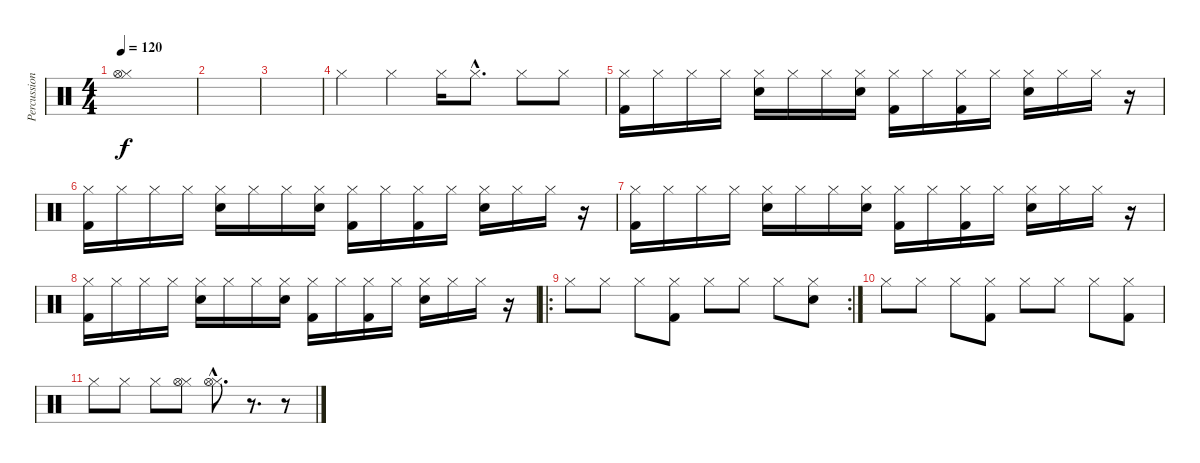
\track ("Percussion" "Percussion") {instrument percussion}
\staff {score}
\articulation defaults
\ts (4 4)
\tempo 120
\clef neutral
\ks c
("Hi-Hat (closed)" "Hi-Hat (open)").1{dy f} |
|
|
"Hi-Hat (closed)".4 "Hi-Hat (closed)".4 "Hi-Hat (closed)".16 "Hi-Hat (closed)"{hac}.8{d} "Hi-Hat (closed)".8 "Hi-Hat (closed)".8 |
("Hi-Hat (closed)" "Kick (hit) 2").16 "Hi-Hat (closed)".16 "Hi-Hat (closed)".16 "Hi-Hat (closed)".16 ("Hi-Hat (closed)" "Snare (hit) 2").16 "Hi-Hat (closed)".16 "Hi-Hat (closed)".16 ("Hi-Hat (closed)" "Snare (hit) 2").16 ("Hi-Hat (closed)" "Kick (hit) 2").16 "Hi-Hat (closed)".16 ("Hi-Hat (closed)" "Kick (hit) 2").16 "Hi-Hat (closed)".16 ("Hi-Hat (closed)" "Snare (hit) 2").16 "Hi-Hat (closed)".16 "Hi-Hat (closed)".16 r.16 |
("Hi-Hat (closed)" "Kick (hit) 2").16 "Hi-Hat (closed)".16 "Hi-Hat (closed)".16 "Hi-Hat (closed)".16 ("Hi-Hat (closed)" "Snare (hit) 2").16 "Hi-Hat (closed)".16 "Hi-Hat (closed)".16 ("Hi-Hat (closed)" "Snare (hit) 2").16 ("Hi-Hat (closed)" "Kick (hit) 2").16 "Hi-Hat (closed)".16 ("Hi-Hat (closed)" "Kick (hit) 2").16 "Hi-Hat (closed)".16 ("Hi-Hat (closed)" "Snare (hit) 2").16 "Hi-Hat (closed)".16 "Hi-Hat (closed)".16 r.16 |
("Hi-Hat (closed)" "Kick (hit) 2").16 "Hi-Hat (closed)".16 "Hi-Hat (closed)".16 "Hi-Hat (closed)".16 ("Hi-Hat (closed)" "Snare (hit) 2").16 "Hi-Hat (closed)".16 "Hi-Hat (closed)".16 ("Hi-Hat (closed)" "Snare (hit) 2").16 ("Hi-Hat (closed)" "Kick (hit) 2").16 "Hi-Hat (closed)".16 ("Hi-Hat (closed)" "Kick (hit) 2").16 "Hi-Hat (closed)".16 ("Hi-Hat (closed)" "Snare (hit) 2").16 "Hi-Hat (closed)".16 "Hi-Hat (closed)".16 r.16 |
("Hi-Hat (closed)" "Kick (hit) 2").16 "Hi-Hat (closed)".16 "Hi-Hat (closed)".16 "Hi-Hat (closed)".16 ("Hi-Hat (closed)" "Snare (hit) 2").16 "Hi-Hat (closed)".16 "Hi-Hat (closed)".16 ("Hi-Hat (closed)" "Snare (hit) 2").16 ("Hi-Hat (closed)" "Kick (hit) 2").16 "Hi-Hat (closed)".16 ("Hi-Hat (closed)" "Kick (hit) 2").16 "Hi-Hat (closed)".16 ("Hi-Hat (closed)" "Snare (hit) 2").16 "Hi-Hat (closed)".16 "Hi-Hat (closed)".16 r.16 |
\ro
\rc 2 "Hi-Hat (closed)".8 "Hi-Hat (closed)".8 "Hi-Hat (closed)".8
("Hi-Hat (closed)" "Kick (hit) 2").8 "Hi-Hat (closed)".8 "Hi-Hat (closed)".8 "Hi-Hat (closed)".8 ("Hi-Hat (closed)" "Snare (hit) 2").8 |
"Hi-Hat (closed)".8 "Hi-Hat (closed)".8 "Hi-Hat (closed)".8 ("Hi-Hat (closed)" "Kick (hit) 2").8 "Hi-Hat (closed)".8 "Hi-Hat (closed)".8 "Hi-Hat (closed)".8 ("Hi-Hat (closed)" "Kick (hit) 2").8 |
"Hi-Hat (closed)".8 "Hi-Hat (closed)".8 "Hi-Hat (closed)".8 ("Hi-Hat (closed)" "Hi-Hat (open)").8 ("Hi-Hat (closed)"{hac} "Hi-Hat (open)"{hac}).8{d} r.8{d} r.8
